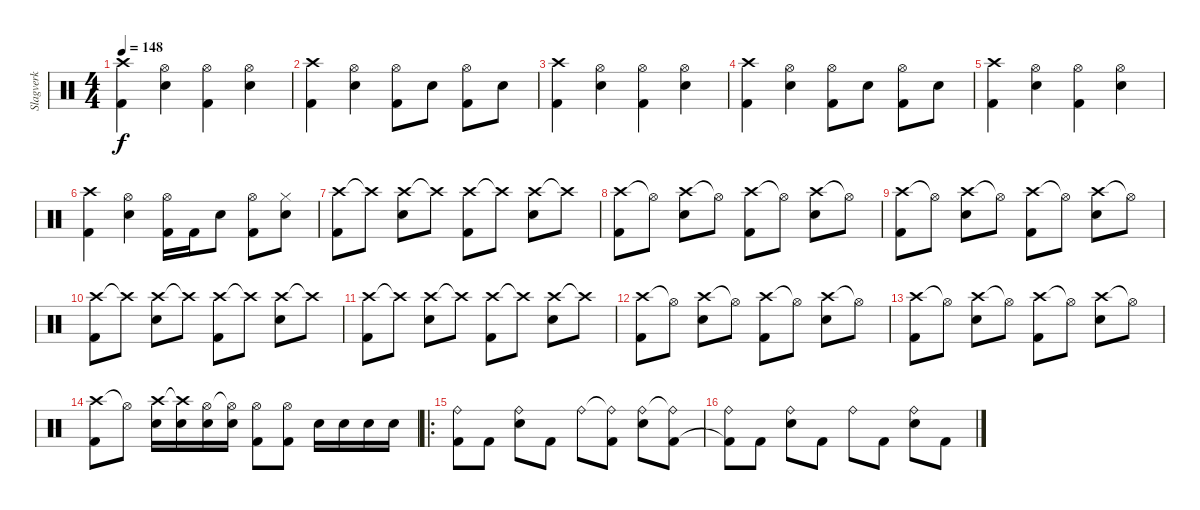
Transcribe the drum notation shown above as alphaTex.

\track ("Slagverk" "Slagverk") {instrument percussion}
\staff {score}
\articulation defaults
\ts (4 4)
\tempo 148
\clef neutral
\ks c
("Crash high (hit)" "Kick (hit) 2").4{dy f} ("Hi-Hat (open)" "Electric Snare (hit)").4 ("Hi-Hat (open)" "Kick (hit) 2").4 ("Hi-Hat (open)" "Electric Snare (hit)").4 |
("Crash high (hit)" "Kick (hit) 2").4 ("Hi-Hat (open)" "Electric Snare (hit)").4 ("Hi-Hat (open)" "Kick (hit) 2").8 "Electric Snare (hit)".8 ("Hi-Hat (open)" "Kick (hit) 2").8 "Electric Snare (hit)".8 |
("Crash high (hit)" "Kick (hit) 2").4 ("Hi-Hat (open)" "Electric Snare (hit)").4 ("Hi-Hat (open)" "Kick (hit) 2").4 ("Hi-Hat (open)" "Electric Snare (hit)").4 |
("Crash high (hit)" "Kick (hit) 2").4 ("Hi-Hat (open)" "Electric Snare (hit)").4 ("Hi-Hat (open)" "Kick (hit) 2").8 "Electric Snare (hit)".8 ("Hi-Hat (open)" "Kick (hit) 2").8 "Electric Snare (hit)".8 |
("Crash high (hit)" "Kick (hit) 2").4 ("Hi-Hat (open)" "Electric Snare (hit)").4 ("Hi-Hat (open)" "Kick (hit) 2").4 ("Hi-Hat (open)" "Electric Snare (hit)").4 |
("Crash high (hit)" "Kick (hit) 2").4 ("Hi-Hat (open)" "Electric Snare (hit)").4 ("Hi-Hat (open)" "Kick (hit) 2").16 "Kick (hit) 2".16 "Electric Snare (hit)".8 ("Hi-Hat (open)" "Kick (hit) 2").8 ("Hi-Hat (closed)" "Electric Snare (hit)").8 |
("Crash high (hit)" "Kick (hit) 2").8 "Crash high (hit)"{t}.8 ("Crash high (hit)" "Electric Snare (hit)").8 "Crash high (hit)"{t}.8 ("Crash high (hit)" "Kick (hit) 2").8 "Crash high (hit)"{t}.8 ("Crash high (hit)" "Electric Snare (hit)").8 "Crash high (hit)"{t}.8 |
("Crash high (hit)" "Kick (hit) 2").8 "Hi-Hat (open)"{t}.8 ("Crash high (hit)" "Electric Snare (hit)").8 "Hi-Hat (open)"{t}.8 ("Crash high (hit)" "Kick (hit) 2").8 "Hi-Hat (open)"{t}.8 ("Crash high (hit)" "Electric Snare (hit)").8 "Hi-Hat (open)"{t}.8 |
("Crash high (hit)" "Kick (hit) 2").8 "Hi-Hat (open)"{t}.8 ("Crash high (hit)" "Electric Snare (hit)").8 "Hi-Hat (open)"{t}.8 ("Crash high (hit)" "Kick (hit) 2").8 "Hi-Hat (open)"{t}.8 ("Crash high (hit)" "Electric Snare (hit)").8 "Hi-Hat (open)"{t}.8 |
("Crash high (hit)" "Kick (hit) 2").8 "Crash high (hit)"{t}.8 ("Crash high (hit)" "Electric Snare (hit)").8 "Crash high (hit)"{t}.8 ("Crash high (hit)" "Kick (hit) 2").8 "Crash high (hit)"{t}.8 ("Crash high (hit)" "Electric Snare (hit)").8 "Crash high (hit)"{t}.8 |
("Crash high (hit)" "Kick (hit) 2").8 "Crash high (hit)"{t}.8 ("Crash high (hit)" "Electric Snare (hit)").8 "Crash high (hit)"{t}.8 ("Crash high (hit)" "Kick (hit) 2").8 "Crash high (hit)"{t}.8 ("Crash high (hit)" "Electric Snare (hit)").8 "Crash high (hit)"{t}.8 |
("Crash high (hit)" "Kick (hit) 2").8 "Hi-Hat (open)"{t}.8 ("Crash high (hit)" "Electric Snare (hit)").8 "Hi-Hat (open)"{t}.8 ("Crash high (hit)" "Kick (hit) 2").8 "Hi-Hat (open)"{t}.8 ("Crash high (hit)" "Electric Snare (hit)").8 "Hi-Hat (open)"{t}.8 |
("Crash high (hit)" "Kick (hit) 2").8 "Hi-Hat (open)"{t}.8 ("Crash high (hit)" "Electric Snare (hit)").8 "Hi-Hat (open)"{t}.8 ("Crash high (hit)" "Kick (hit) 2").8 "Hi-Hat (open)"{t}.8 ("Crash high (hit)" "Electric Snare (hit)").8 "Hi-Hat (open)"{t}.8 |
("Crash high (hit)" "Kick (hit) 2").8 "Hi-Hat (open)"{t}.8 ("Crash high (hit)" "Electric Snare (hit)").16 ("Crash high (hit)"{t} "Electric Snare (hit)").16 ("Hi-Hat (open)" "Electric Snare (hit)").16 ("Hi-Hat (open)"{t} "Electric Snare (hit)").16 ("Hi-Hat (open)" "Kick (hit) 2").8 ("Hi-Hat (open)" "Kick (hit) 2").8 "Electric Snare (hit)".16 "Electric Snare (hit)".16 "Electric Snare (hit)".16 "Electric Snare (hit)".16 |
\ro
("Ride (bell)" "Kick (hit) 2").8 "Kick (hit) 2".8 ("Ride (bell)" "Electric Snare (hit)").8 "Kick (hit) 2".8 "Ride (bell)".8 ("Ride (bell)"{t} "Kick (hit) 2").8 ("Ride (bell)" "Electric Snare (hit)").8 ("Ride (bell)"{t} "Kick (hit) 2").8 |
("Ride (bell)" "Kick (hit) 2"{t}).8 "Kick (hit) 2".8 ("Ride (bell)" "Electric Snare (hit)").8 "Kick (hit) 2".8 "Ride (bell)".8 "Kick (hit) 2".8 ("Ride (bell)" "Electric Snare (hit)").8 "Kick (hit) 2".8
